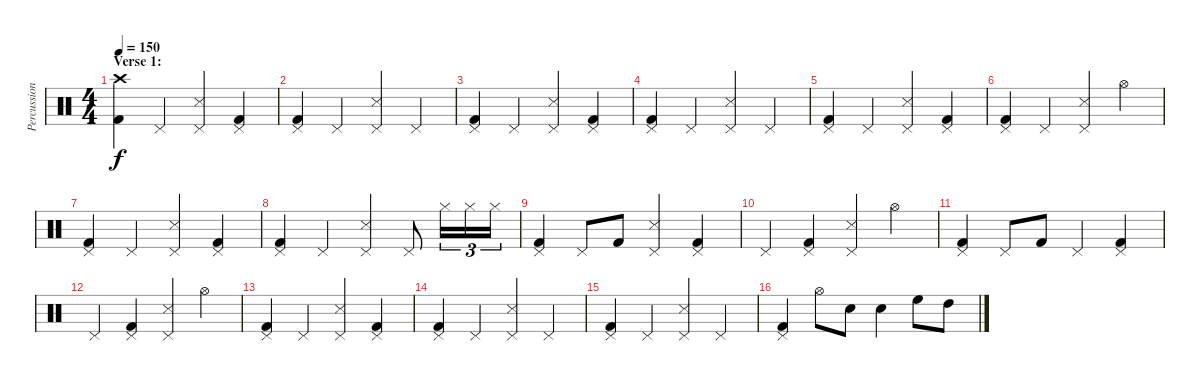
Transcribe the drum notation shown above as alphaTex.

\track ("Percussion" "Percussion") {instrument percussion}
\staff {score}
\articulation defaults
\ts (4 4)
\section ("" "Verse 1:")
\tempo 150
\clef neutral
\ks c
("Crash high (hit)" "Kick (hit) 2").4{dy f} "Pedal Hi-Hat (hit)".4 ("Pedal Hi-Hat (hit)" "Snare (side stick) 3").4 ("Pedal Hi-Hat (hit)" "Kick (hit) 2").4 |
("Pedal Hi-Hat (hit)" "Kick (hit) 2").4 "Pedal Hi-Hat (hit)".4 ("Pedal Hi-Hat (hit)" "Snare (side stick) 3").4 "Pedal Hi-Hat (hit)".4 |
("Pedal Hi-Hat (hit)" "Kick (hit) 2").4 "Pedal Hi-Hat (hit)".4 ("Pedal Hi-Hat (hit)" "Snare (side stick) 3").4 ("Pedal Hi-Hat (hit)" "Kick (hit) 2").4 |
("Pedal Hi-Hat (hit)" "Kick (hit) 2").4 "Pedal Hi-Hat (hit)".4 ("Pedal Hi-Hat (hit)" "Snare (side stick) 3").4 "Pedal Hi-Hat (hit)".4 |
("Pedal Hi-Hat (hit)" "Kick (hit) 2").4 "Pedal Hi-Hat (hit)".4 ("Pedal Hi-Hat (hit)" "Snare (side stick) 3").4 ("Pedal Hi-Hat (hit)" "Kick (hit) 2").4 |
("Pedal Hi-Hat (hit)" "Kick (hit) 2").4 "Pedal Hi-Hat (hit)".4 ("Pedal Hi-Hat (hit)" "Snare (side stick) 3").4 "Hi-Hat (open)".4 |
("Pedal Hi-Hat (hit)" "Kick (hit) 2").4 "Pedal Hi-Hat (hit)".4 ("Pedal Hi-Hat (hit)" "Snare (side stick) 3").4 ("Pedal Hi-Hat (hit)" "Kick (hit) 2").4 |
("Pedal Hi-Hat (hit)" "Kick (hit) 2").4 "Pedal Hi-Hat (hit)".4 ("Pedal Hi-Hat (hit)" "Snare (side stick) 3").4 "Pedal Hi-Hat (hit)".8 "Hi-Hat (closed)".16{tu (3 2)} "Hi-Hat (closed)".16{tu (3 2)} "Hi-Hat (closed)".16{tu (3 2)} |
("Pedal Hi-Hat (hit)" "Kick (hit) 2").4 "Pedal Hi-Hat (hit)".8 "Kick (hit) 2".8 ("Pedal Hi-Hat (hit)" "Snare (side stick) 3").4 ("Pedal Hi-Hat (hit)" "Kick (hit) 2").4 |
"Pedal Hi-Hat (hit)".4 ("Pedal Hi-Hat (hit)" "Kick (hit) 2").4 ("Pedal Hi-Hat (hit)" "Snare (side stick) 3").4 "Hi-Hat (open)".4 |
("Pedal Hi-Hat (hit)" "Kick (hit) 2").4 "Pedal Hi-Hat (hit)".8 "Kick (hit) 2".8 "Pedal Hi-Hat (hit)".4 ("Pedal Hi-Hat (hit)" "Kick (hit) 2").4 |
"Pedal Hi-Hat (hit)".4 ("Pedal Hi-Hat (hit)" "Kick (hit) 2").4 ("Pedal Hi-Hat (hit)" "Snare (side stick) 3").4 "Hi-Hat (open)".4 |
("Pedal Hi-Hat (hit)" "Kick (hit) 2").4 "Pedal Hi-Hat (hit)".4 ("Pedal Hi-Hat (hit)" "Snare (side stick) 3").4 ("Pedal Hi-Hat (hit)" "Kick (hit) 2").4 |
("Pedal Hi-Hat (hit)" "Kick (hit) 2").4 "Pedal Hi-Hat (hit)".4 ("Pedal Hi-Hat (hit)" "Snare (side stick) 3").4 "Pedal Hi-Hat (hit)".4 |
("Pedal Hi-Hat (hit)" "Kick (hit) 2").4 "Pedal Hi-Hat (hit)".4 ("Pedal Hi-Hat (hit)" "Snare (side stick) 3").4 "Pedal Hi-Hat (hit)".4 |
("Pedal Hi-Hat (hit)" "Kick (hit) 2").4 "Hi-Hat (open)".8 "Electric Snare (hit)".8 "Electric Snare (hit)".4 "High Floor Tom (hit)".8 "High Tom (hit)".8
